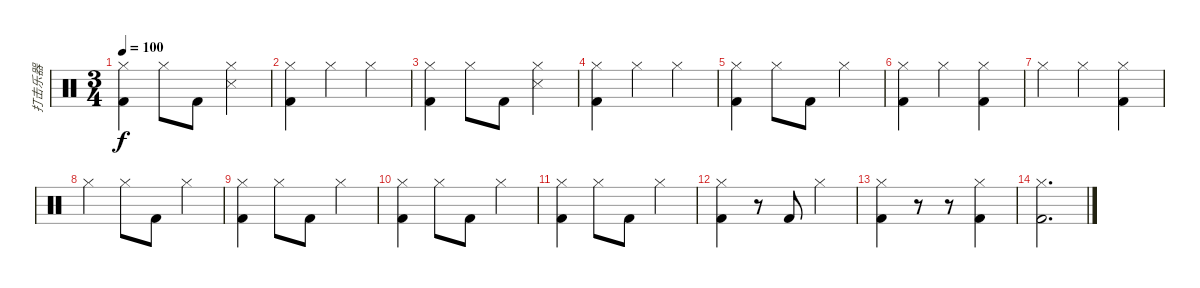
\track ("打击乐器" "打击乐器") {instrument percussion}
\staff {score}
\articulation defaults
\ts (3 4)
\tempo 100
\clef neutral
\ks c
("Hi-Hat (closed)" "Kick (hit) 2").4{dy f} "Hi-Hat (closed)".8 "Kick (hit) 2".8 ("Hi-Hat (closed)" "Snare (side stick) 3").4 |
("Hi-Hat (closed)" "Kick (hit) 2").4 "Hi-Hat (closed)".4 "Hi-Hat (closed)".4 |
("Hi-Hat (closed)" "Kick (hit) 2").4 "Hi-Hat (closed)".8 "Kick (hit) 2".8 ("Hi-Hat (closed)" "Snare (side stick) 3").4 |
("Hi-Hat (closed)" "Kick (hit) 2").4 "Hi-Hat (closed)".4 "Hi-Hat (closed)".4 |
("Hi-Hat (closed)" "Kick (hit) 2").4 "Hi-Hat (closed)".8 "Kick (hit) 2".8 "Hi-Hat (closed)".4 |
("Hi-Hat (closed)" "Kick (hit) 2").4 "Hi-Hat (closed)".4 ("Hi-Hat (closed)" "Kick (hit) 2").4 |
"Hi-Hat (closed)".4 "Hi-Hat (closed)".4 ("Hi-Hat (closed)" "Kick (hit) 2").4 |
"Hi-Hat (closed)".4 "Hi-Hat (closed)".8 "Kick (hit) 2".8 "Hi-Hat (closed)".4 |
("Hi-Hat (closed)" "Kick (hit) 2").4 "Hi-Hat (closed)".8 "Kick (hit) 2".8 "Hi-Hat (closed)".4 |
("Hi-Hat (closed)" "Kick (hit) 2").4 "Hi-Hat (closed)".8 "Kick (hit) 2".8 "Hi-Hat (closed)".4 |
("Hi-Hat (closed)" "Kick (hit) 2").4 "Hi-Hat (closed)".8 "Kick (hit) 2".8 "Hi-Hat (closed)".4 |
("Hi-Hat (closed)" "Kick (hit) 2").4 r.8 "Kick (hit) 2".8 "Hi-Hat (closed)".4 |
("Hi-Hat (closed)" "Kick (hit) 2").4 r.8 r.8 ("Hi-Hat (closed)" "Kick (hit) 2").4 |
("Hi-Hat (closed)" "Kick (hit) 2").2{d}
